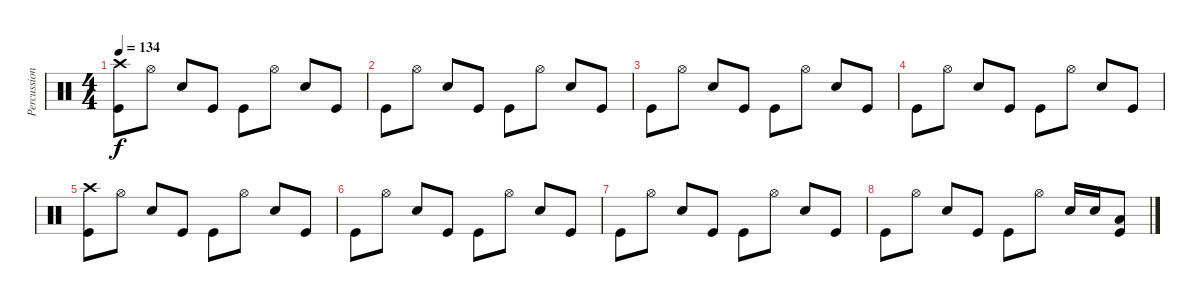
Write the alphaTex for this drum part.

\track ("Percussion" "Percussion") {instrument percussion}
\staff {score}
\articulation defaults
\ts (4 4)
\tempo 134
\clef neutral
\ks c
("Crash high (hit)" "Kick (hit)").8{dy f} "Hi-Hat (open)".8 "Electric Snare (hit)".8 "Kick (hit)".8 "Kick (hit)".8 "Hi-Hat (open)".8 "Electric Snare (hit)".8 "Kick (hit)".8 |
"Kick (hit)".8 "Hi-Hat (open)".8 "Electric Snare (hit)".8 "Kick (hit)".8 "Kick (hit)".8 "Hi-Hat (open)".8 "Electric Snare (hit)".8 "Kick (hit)".8 |
"Kick (hit)".8 "Hi-Hat (open)".8 "Electric Snare (hit)".8 "Kick (hit)".8 "Kick (hit)".8 "Hi-Hat (open)".8 "Electric Snare (hit)".8 "Kick (hit)".8 |
"Kick (hit)".8 "Hi-Hat (open)".8 "Electric Snare (hit)".8 "Kick (hit)".8 "Kick (hit)".8 "Hi-Hat (open)".8 "Electric Snare (hit)".8 "Kick (hit)".8 |
("Crash high (hit)" "Kick (hit)").8 "Hi-Hat (open)".8 "Electric Snare (hit)".8 "Kick (hit)".8 "Kick (hit)".8 "Hi-Hat (open)".8 "Electric Snare (hit)".8 "Kick (hit)".8 |
"Kick (hit)".8 "Hi-Hat (open)".8 "Electric Snare (hit)".8 "Kick (hit)".8 "Kick (hit)".8 "Hi-Hat (open)".8 "Electric Snare (hit)".8 "Kick (hit)".8 |
"Kick (hit)".8 "Hi-Hat (open)".8 "Electric Snare (hit)".8 "Kick (hit)".8 "Kick (hit)".8 "Hi-Hat (open)".8 "Electric Snare (hit)".8 "Kick (hit)".8 |
"Kick (hit)".8 "Hi-Hat (open)".8 "Electric Snare (hit)".8 "Kick (hit)".8 "Kick (hit)".8 "Hi-Hat (open)".8 "Electric Snare (hit)".16 "Electric Snare (hit)".16 ("Low Tom (hit)" "Kick (hit)").8
